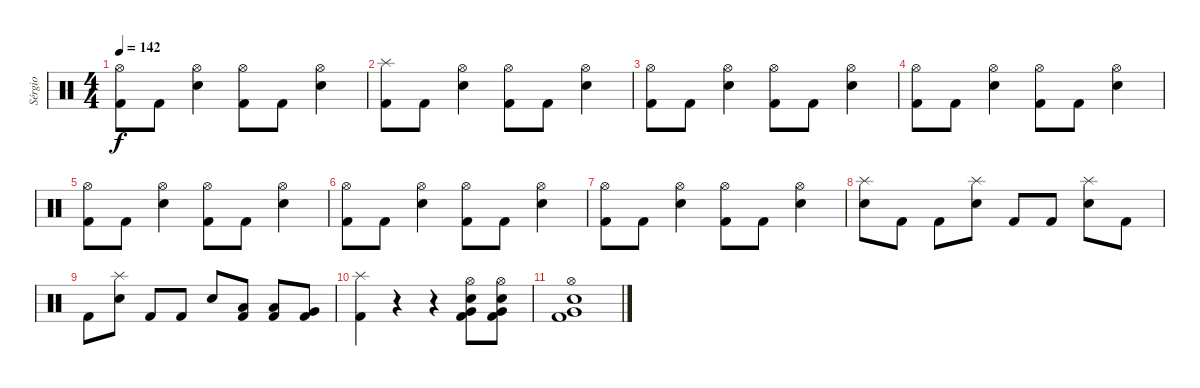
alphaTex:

\track ("Sérgio" "Sérgio") {instrument percussion}
\staff {score}
\articulation defaults
\ts (4 4)
\tempo 142
\clef neutral
\ks c
("Hi-Hat (open)" "Kick (hit) 2").8{dy f} "Kick (hit) 2".8 ("Hi-Hat (open)" "Snare (hit) 2").4 ("Hi-Hat (open)" "Kick (hit) 2").8 "Kick (hit) 2".8 ("Hi-Hat (open)" "Snare (hit) 2").4 |
("Splash (hit)" "Kick (hit) 2").8 "Kick (hit) 2".8 ("Hi-Hat (open)" "Snare (hit) 2").4 ("Hi-Hat (open)" "Kick (hit) 2").8 "Kick (hit) 2".8 ("Hi-Hat (open)" "Snare (hit) 2").4 |
("Hi-Hat (open)" "Kick (hit) 2").8 "Kick (hit) 2".8 ("Hi-Hat (open)" "Snare (hit) 2").4 ("Hi-Hat (open)" "Kick (hit) 2").8 "Kick (hit) 2".8 ("Hi-Hat (open)" "Snare (hit) 2").4 |
("Hi-Hat (open)" "Kick (hit) 2").8 "Kick (hit) 2".8 ("Hi-Hat (open)" "Snare (hit) 2").4 ("Hi-Hat (open)" "Kick (hit) 2").8 "Kick (hit) 2".8 ("Hi-Hat (open)" "Snare (hit) 2").4 |
("Hi-Hat (open)" "Kick (hit) 2").8 "Kick (hit) 2".8 ("Hi-Hat (open)" "Snare (hit) 2").4 ("Hi-Hat (open)" "Kick (hit) 2").8 "Kick (hit) 2".8 ("Hi-Hat (open)" "Snare (hit) 2").4 |
("Hi-Hat (open)" "Kick (hit) 2").8 "Kick (hit) 2".8 ("Hi-Hat (open)" "Snare (hit) 2").4 ("Hi-Hat (open)" "Kick (hit) 2").8 "Kick (hit) 2".8 ("Hi-Hat (open)" "Snare (hit) 2").4 |
("Hi-Hat (open)" "Kick (hit) 2").8 "Kick (hit) 2".8 ("Hi-Hat (open)" "Snare (hit) 2").4 ("Hi-Hat (open)" "Kick (hit) 2").8 "Kick (hit) 2".8 ("Hi-Hat (open)" "Snare (hit) 2").4 |
("Splash (hit)" "Snare (hit) 2").8 "Kick (hit) 2".8 "Kick (hit) 2".8 ("Splash (hit)" "Snare (hit) 2").8 "Kick (hit) 2".8 "Kick (hit) 2".8 ("Splash (hit)" "Snare (hit) 2").8 "Kick (hit) 2".8 |
"Kick (hit) 2".8 ("Splash (hit)" "Snare (hit) 2").8 "Kick (hit) 2".8 "Kick (hit) 2".8 "Snare (hit) 2".8 ("Low Floor Tom (hit)" "Kick (hit) 2").8 ("Low Floor Tom (hit)" "Kick (hit) 2").8 ("Very Low Tom (hit)" "Kick (hit) 2").8 |
("Splash (hit)" "Kick (hit) 2").4 r.4 r.4 ("Hi-Hat (open)" "Snare (hit) 2" "Very Low Tom (hit)" "Kick (hit) 2").8 ("Hi-Hat (open)" "Snare (hit) 2" "Very Low Tom (hit)" "Kick (hit) 2").8 |
("Hi-Hat (open)" "Snare (hit) 2" "Very Low Tom (hit)" "Kick (hit) 2").1
